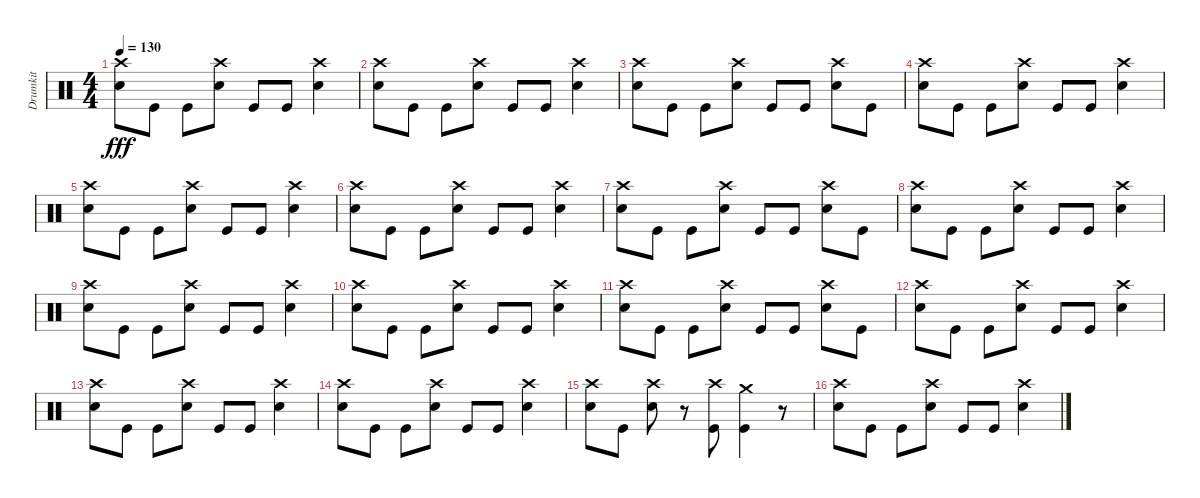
\track ("Drumkit" "Drumkit") {instrument percussion}
\staff {score}
\articulation defaults
\ts (4 4)
\tempo 130
\clef neutral
\ks c
("Snare (hit) 2" "Crash high (hit)").8{dy fff} "Kick (hit)".8 "Kick (hit)".8 ("Snare (hit) 2" "Crash high (hit)").8 "Kick (hit)".8 "Kick (hit)".8 ("Snare (hit) 2" "Crash high (hit)").4 |
("Snare (hit) 2" "Crash high (hit)").8 "Kick (hit)".8 "Kick (hit)".8 ("Snare (hit) 2" "Crash high (hit)").8 "Kick (hit)".8 "Kick (hit)".8 ("Snare (hit) 2" "Crash high (hit)").4 |
("Snare (hit) 2" "Crash high (hit)").8 "Kick (hit)".8 "Kick (hit)".8 ("Snare (hit) 2" "Crash high (hit)").8 "Kick (hit)".8 "Kick (hit)".8 ("Snare (hit) 2" "Crash high (hit)").8 "Kick (hit)".8 |
("Snare (hit) 2" "Crash high (hit)").8 "Kick (hit)".8 "Kick (hit)".8 ("Snare (hit) 2" "Crash high (hit)").8 "Kick (hit)".8 "Kick (hit)".8 ("Snare (hit) 2" "Crash high (hit)").4 |
("Snare (hit) 2" "Crash high (hit)").8 "Kick (hit)".8 "Kick (hit)".8 ("Snare (hit) 2" "Crash high (hit)").8 "Kick (hit)".8 "Kick (hit)".8 ("Snare (hit) 2" "Crash high (hit)").4 |
("Snare (hit) 2" "Crash high (hit)").8 "Kick (hit)".8 "Kick (hit)".8 ("Snare (hit) 2" "Crash high (hit)").8 "Kick (hit)".8 "Kick (hit)".8 ("Snare (hit) 2" "Crash high (hit)").4 |
("Snare (hit) 2" "Crash high (hit)").8 "Kick (hit)".8 "Kick (hit)".8 ("Snare (hit) 2" "Crash high (hit)").8 "Kick (hit)".8 "Kick (hit)".8 ("Snare (hit) 2" "Crash high (hit)").8 "Kick (hit)".8 |
("Snare (hit) 2" "Crash high (hit)").8 "Kick (hit)".8 "Kick (hit)".8 ("Snare (hit) 2" "Crash high (hit)").8 "Kick (hit)".8 "Kick (hit)".8 ("Snare (hit) 2" "Crash high (hit)").4 |
("Snare (hit) 2" "Crash high (hit)").8 "Kick (hit)".8 "Kick (hit)".8 ("Snare (hit) 2" "Crash high (hit)").8 "Kick (hit)".8 "Kick (hit)".8 ("Snare (hit) 2" "Crash high (hit)").4 |
("Snare (hit) 2" "Crash high (hit)").8 "Kick (hit)".8 "Kick (hit)".8 ("Snare (hit) 2" "Crash high (hit)").8 "Kick (hit)".8 "Kick (hit)".8 ("Snare (hit) 2" "Crash high (hit)").4 |
("Snare (hit) 2" "Crash high (hit)").8 "Kick (hit)".8 "Kick (hit)".8 ("Snare (hit) 2" "Crash high (hit)").8 "Kick (hit)".8 "Kick (hit)".8 ("Snare (hit) 2" "Crash high (hit)").8 "Kick (hit)".8 |
("Snare (hit) 2" "Crash high (hit)").8 "Kick (hit)".8 "Kick (hit)".8 ("Snare (hit) 2" "Crash high (hit)").8 "Kick (hit)".8 "Kick (hit)".8 ("Snare (hit) 2" "Crash high (hit)").4 |
("Snare (hit) 2" "Crash high (hit)").8 "Kick (hit)".8 "Kick (hit)".8 ("Snare (hit) 2" "Crash high (hit)").8 "Kick (hit)".8 "Kick (hit)".8 ("Snare (hit) 2" "Crash high (hit)").4 |
("Snare (hit) 2" "Crash high (hit)").8 "Kick (hit)".8 "Kick (hit)".8 ("Snare (hit) 2" "Crash high (hit)").8 "Kick (hit)".8 "Kick (hit)".8 ("Snare (hit) 2" "Crash high (hit)").4 |
("Snare (hit) 2" "Crash high (hit)").8 "Kick (hit)".8 ("Crash high (hit)" "Snare (hit) 2").8 r.8 ("Kick (hit)" "Crash high (hit)").8 ("Kick (hit)" "Crash medium (hit)").4 r.8 |
("Snare (hit) 2" "Crash high (hit)").8 "Kick (hit)".8 "Kick (hit)".8 ("Snare (hit) 2" "Crash high (hit)").8 "Kick (hit)".8 "Kick (hit)".8 ("Snare (hit) 2" "Crash high (hit)").4
